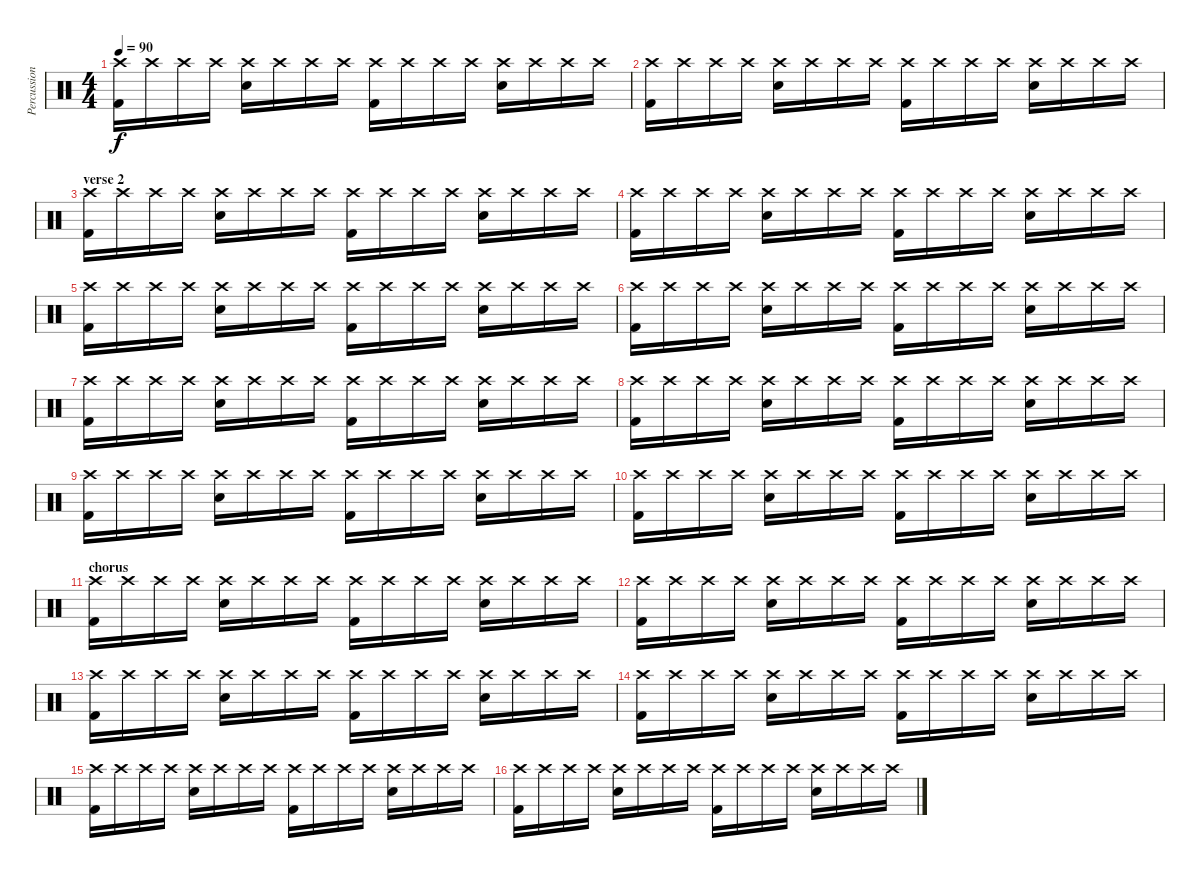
\track ("Percussion" "Percussion") {instrument percussion}
\staff {score}
\articulation defaults
\ts (4 4)
\tempo 90
\clef neutral
\ks c
("Crash high (hit)" "Kick (hit) 2").16{dy f} "Crash high (hit)".16 "Crash high (hit)".16 "Crash high (hit)".16 ("Crash high (hit)" "Electric Snare (hit)").16 "Crash high (hit)".16 "Crash high (hit)".16 "Crash high (hit)".16 ("Crash high (hit)" "Kick (hit) 2").16 "Crash high (hit)".16 "Crash high (hit)".16 "Crash high (hit)".16 ("Crash high (hit)" "Electric Snare (hit)").16 "Crash high (hit)".16 "Crash high (hit)".16 "Crash high (hit)".16 |
("Crash high (hit)" "Kick (hit) 2").16 "Crash high (hit)".16 "Crash high (hit)".16 "Crash high (hit)".16 ("Crash high (hit)" "Electric Snare (hit)").16 "Crash high (hit)".16 "Crash high (hit)".16 "Crash high (hit)".16 ("Crash high (hit)" "Kick (hit) 2").16 "Crash high (hit)".16 "Crash high (hit)".16 "Crash high (hit)".16 ("Crash high (hit)" "Electric Snare (hit)").16 "Crash high (hit)".16 "Crash high (hit)".16 "Crash high (hit)".16 |
\section ("" "verse 2")
("Crash high (hit)" "Kick (hit) 2").16 "Crash high (hit)".16 "Crash high (hit)".16 "Crash high (hit)".16 ("Crash high (hit)" "Electric Snare (hit)").16 "Crash high (hit)".16 "Crash high (hit)".16 "Crash high (hit)".16 ("Crash high (hit)" "Kick (hit) 2").16 "Crash high (hit)".16 "Crash high (hit)".16 "Crash high (hit)".16 ("Crash high (hit)" "Electric Snare (hit)").16 "Crash high (hit)".16 "Crash high (hit)".16 "Crash high (hit)".16 |
("Crash high (hit)" "Kick (hit) 2").16 "Crash high (hit)".16 "Crash high (hit)".16 "Crash high (hit)".16 ("Crash high (hit)" "Electric Snare (hit)").16 "Crash high (hit)".16 "Crash high (hit)".16 "Crash high (hit)".16 ("Crash high (hit)" "Kick (hit) 2").16 "Crash high (hit)".16 "Crash high (hit)".16 "Crash high (hit)".16 ("Crash high (hit)" "Electric Snare (hit)").16 "Crash high (hit)".16 "Crash high (hit)".16 "Crash high (hit)".16 |
("Crash high (hit)" "Kick (hit) 2").16 "Crash high (hit)".16 "Crash high (hit)".16 "Crash high (hit)".16 ("Crash high (hit)" "Electric Snare (hit)").16 "Crash high (hit)".16 "Crash high (hit)".16 "Crash high (hit)".16 ("Crash high (hit)" "Kick (hit) 2").16 "Crash high (hit)".16 "Crash high (hit)".16 "Crash high (hit)".16 ("Crash high (hit)" "Electric Snare (hit)").16 "Crash high (hit)".16 "Crash high (hit)".16 "Crash high (hit)".16 |
("Crash high (hit)" "Kick (hit) 2").16 "Crash high (hit)".16 "Crash high (hit)".16 "Crash high (hit)".16 ("Crash high (hit)" "Electric Snare (hit)").16 "Crash high (hit)".16 "Crash high (hit)".16 "Crash high (hit)".16 ("Crash high (hit)" "Kick (hit) 2").16 "Crash high (hit)".16 "Crash high (hit)".16 "Crash high (hit)".16 ("Crash high (hit)" "Electric Snare (hit)").16 "Crash high (hit)".16 "Crash high (hit)".16 "Crash high (hit)".16 |
("Crash high (hit)" "Kick (hit) 2").16 "Crash high (hit)".16 "Crash high (hit)".16 "Crash high (hit)".16 ("Crash high (hit)" "Electric Snare (hit)").16 "Crash high (hit)".16 "Crash high (hit)".16 "Crash high (hit)".16 ("Crash high (hit)" "Kick (hit) 2").16 "Crash high (hit)".16 "Crash high (hit)".16 "Crash high (hit)".16 ("Crash high (hit)" "Electric Snare (hit)").16 "Crash high (hit)".16 "Crash high (hit)".16 "Crash high (hit)".16 |
("Crash high (hit)" "Kick (hit) 2").16 "Crash high (hit)".16 "Crash high (hit)".16 "Crash high (hit)".16 ("Crash high (hit)" "Electric Snare (hit)").16 "Crash high (hit)".16 "Crash high (hit)".16 "Crash high (hit)".16 ("Crash high (hit)" "Kick (hit) 2").16 "Crash high (hit)".16 "Crash high (hit)".16 "Crash high (hit)".16 ("Crash high (hit)" "Electric Snare (hit)").16 "Crash high (hit)".16 "Crash high (hit)".16 "Crash high (hit)".16 |
("Crash high (hit)" "Kick (hit) 2").16 "Crash high (hit)".16 "Crash high (hit)".16 "Crash high (hit)".16 ("Crash high (hit)" "Electric Snare (hit)").16 "Crash high (hit)".16 "Crash high (hit)".16 "Crash high (hit)".16 ("Crash high (hit)" "Kick (hit) 2").16 "Crash high (hit)".16 "Crash high (hit)".16 "Crash high (hit)".16 ("Crash high (hit)" "Electric Snare (hit)").16 "Crash high (hit)".16 "Crash high (hit)".16 "Crash high (hit)".16 |
("Crash high (hit)" "Kick (hit) 2").16 "Crash high (hit)".16 "Crash high (hit)".16 "Crash high (hit)".16 ("Crash high (hit)" "Electric Snare (hit)").16 "Crash high (hit)".16 "Crash high (hit)".16 "Crash high (hit)".16 ("Crash high (hit)" "Kick (hit) 2").16 "Crash high (hit)".16 "Crash high (hit)".16 "Crash high (hit)".16 ("Crash high (hit)" "Electric Snare (hit)").16 "Crash high (hit)".16 "Crash high (hit)".16 "Crash high (hit)".16 |
\section ("" "chorus")
("Crash high (hit)" "Kick (hit) 2").16 "Crash high (hit)".16 "Crash high (hit)".16 "Crash high (hit)".16 ("Crash high (hit)" "Electric Snare (hit)").16 "Crash high (hit)".16 "Crash high (hit)".16 "Crash high (hit)".16 ("Crash high (hit)" "Kick (hit) 2").16 "Crash high (hit)".16 "Crash high (hit)".16 "Crash high (hit)".16 ("Crash high (hit)" "Electric Snare (hit)").16 "Crash high (hit)".16 "Crash high (hit)".16 "Crash high (hit)".16 |
("Crash high (hit)" "Kick (hit) 2").16 "Crash high (hit)".16 "Crash high (hit)".16 "Crash high (hit)".16 ("Crash high (hit)" "Electric Snare (hit)").16 "Crash high (hit)".16 "Crash high (hit)".16 "Crash high (hit)".16 ("Crash high (hit)" "Kick (hit) 2").16 "Crash high (hit)".16 "Crash high (hit)".16 "Crash high (hit)".16 ("Crash high (hit)" "Electric Snare (hit)").16 "Crash high (hit)".16 "Crash high (hit)".16 "Crash high (hit)".16 |
("Crash high (hit)" "Kick (hit) 2").16 "Crash high (hit)".16 "Crash high (hit)".16 "Crash high (hit)".16 ("Crash high (hit)" "Electric Snare (hit)").16 "Crash high (hit)".16 "Crash high (hit)".16 "Crash high (hit)".16 ("Crash high (hit)" "Kick (hit) 2").16 "Crash high (hit)".16 "Crash high (hit)".16 "Crash high (hit)".16 ("Crash high (hit)" "Electric Snare (hit)").16 "Crash high (hit)".16 "Crash high (hit)".16 "Crash high (hit)".16 |
("Crash high (hit)" "Kick (hit) 2").16 "Crash high (hit)".16 "Crash high (hit)".16 "Crash high (hit)".16 ("Crash high (hit)" "Electric Snare (hit)").16 "Crash high (hit)".16 "Crash high (hit)".16 "Crash high (hit)".16 ("Crash high (hit)" "Kick (hit) 2").16 "Crash high (hit)".16 "Crash high (hit)".16 "Crash high (hit)".16 ("Crash high (hit)" "Electric Snare (hit)").16 "Crash high (hit)".16 "Crash high (hit)".16 "Crash high (hit)".16 |
("Crash high (hit)" "Kick (hit) 2").16 "Crash high (hit)".16 "Crash high (hit)".16 "Crash high (hit)".16 ("Crash high (hit)" "Electric Snare (hit)").16 "Crash high (hit)".16 "Crash high (hit)".16 "Crash high (hit)".16 ("Crash high (hit)" "Kick (hit) 2").16 "Crash high (hit)".16 "Crash high (hit)".16 "Crash high (hit)".16 ("Crash high (hit)" "Electric Snare (hit)").16 "Crash high (hit)".16 "Crash high (hit)".16 "Crash high (hit)".16 |
("Crash high (hit)" "Kick (hit) 2").16 "Crash high (hit)".16 "Crash high (hit)".16 "Crash high (hit)".16 ("Crash high (hit)" "Electric Snare (hit)").16 "Crash high (hit)".16 "Crash high (hit)".16 "Crash high (hit)".16 ("Crash high (hit)" "Kick (hit) 2").16 "Crash high (hit)".16 "Crash high (hit)".16 "Crash high (hit)".16 ("Crash high (hit)" "Electric Snare (hit)").16 "Crash high (hit)".16 "Crash high (hit)".16 "Crash high (hit)".16
